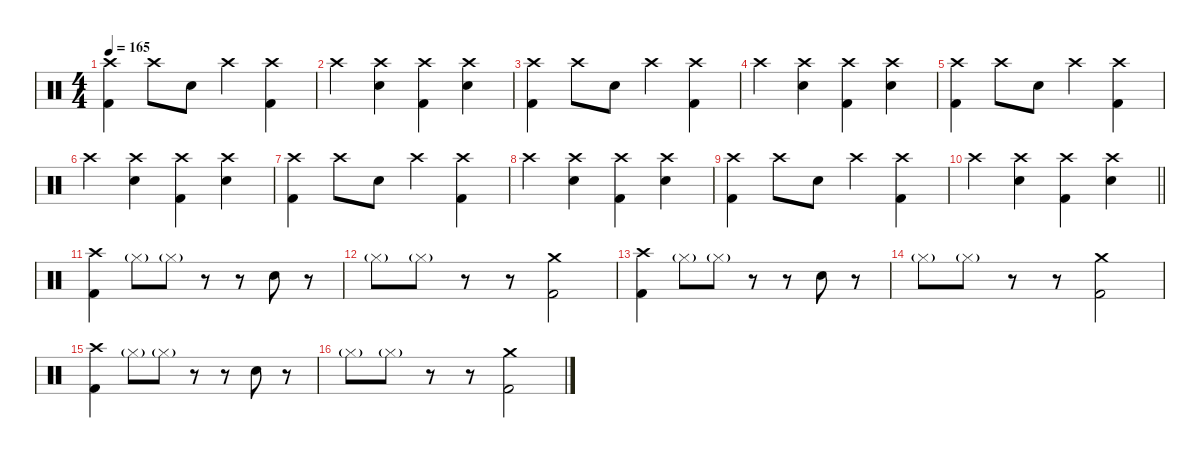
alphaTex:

\defaultSystemsLayout 4
\hideDynamics
\bracketExtendMode nobrackets
\singleTrackTrackNamePolicy hidden
\multiTrackTrackNamePolicy hidden
\firstSystemTrackNameMode fullname
\firstSystemTrackNameOrientation horizontal
\otherSystemsTrackNameOrientation horizontal
\track ("Marty Chapman (Drums)" "drm.") {instrument percussion}
\staff {score}
\articulation defaults
\ts (4 4)
\tempo 165
\clef neutral
\ks c
("Crash high (hit)" "Kick (hit) 2").4{dy f beam Down} "Crash high (hit)".8{beam Down} "Snare (hit) 2".8{beam Down} "Crash high (hit)".4{beam Down} ("Crash high (hit)" "Kick (hit) 2").4{beam Down} |
"Crash high (hit)".4{beam Down} ("Crash high (hit)" "Snare (hit) 2").4{beam Down} ("Crash high (hit)" "Kick (hit) 2").4{beam Down} ("Crash high (hit)" "Snare (hit) 2").4{beam Down} |
("Crash high (hit)" "Kick (hit) 2").4{beam Down} "Crash high (hit)".8{beam Down} "Snare (hit) 2".8{beam Down} "Crash high (hit)".4{beam Down} ("Crash high (hit)" "Kick (hit) 2").4{beam Down} |
"Crash high (hit)".4{beam Down} ("Crash high (hit)" "Snare (hit) 2").4{beam Down} ("Crash high (hit)" "Kick (hit) 2").4{beam Down} ("Crash high (hit)" "Snare (hit) 2").4{beam Down} |
("Crash high (hit)" "Kick (hit) 2").4{beam Down} "Crash high (hit)".8{beam Down} "Snare (hit) 2".8{beam Down} "Crash high (hit)".4{beam Down} ("Crash high (hit)" "Kick (hit) 2").4{beam Down} |
"Crash high (hit)".4{beam Down} ("Crash high (hit)" "Snare (hit) 2").4{beam Down} ("Crash high (hit)" "Kick (hit) 2").4{beam Down} ("Crash high (hit)" "Snare (hit) 2").4{beam Down} |
("Crash high (hit)" "Kick (hit) 2").4{beam Down} "Crash high (hit)".8{beam Down} "Snare (hit) 2".8{beam Down} "Crash high (hit)".4{beam Down} ("Crash high (hit)" "Kick (hit) 2").4{beam Down} |
"Crash high (hit)".4{beam Down} ("Crash high (hit)" "Snare (hit) 2").4{beam Down} ("Crash high (hit)" "Kick (hit) 2").4{beam Down} ("Crash high (hit)" "Snare (hit) 2").4{beam Down} |
("Crash high (hit)" "Kick (hit) 2").4{beam Down} "Crash high (hit)".8{beam Down} "Snare (hit) 2".8{beam Down} "Crash high (hit)".4{beam Down} ("Crash high (hit)" "Kick (hit) 2").4{beam Down} |
\barLineRight lightlight "Crash high (hit)".4{beam Down}
("Crash high (hit)" "Snare (hit) 2").4{beam Down} ("Crash high (hit)" "Kick (hit) 2").4{beam Down} ("Crash high (hit)" "Snare (hit) 2").4{beam Down} |
("Crash high (hit)" "Kick (hit) 2").4{beam Down} "Hi-Hat (closed)"{g}.8{beam Down} "Hi-Hat (closed)"{g}.8{beam Down} r.8{beam Down} r.8{beam Down} "Snare (hit) 2".8{beam Down} r.8{beam Down} |
"Hi-Hat (closed)"{g}.8{beam Down} "Hi-Hat (closed)"{g}.8{beam Down} r.8{beam Down} r.8{beam Down} ("Crash medium (hit)" "Kick (hit) 2").2{beam Down} |
("Crash high (hit)" "Kick (hit) 2").4{beam Down} "Hi-Hat (closed)"{g}.8{beam Down} "Hi-Hat (closed)"{g}.8{beam Down} r.8{beam Down} r.8{beam Down} "Snare (hit) 2".8{beam Down} r.8{beam Down} |
"Hi-Hat (closed)"{g}.8{beam Down} "Hi-Hat (closed)"{g}.8{beam Down} r.8{beam Down} r.8{beam Down} ("Crash medium (hit)" "Kick (hit) 2").2{beam Down} |
("Crash high (hit)" "Kick (hit) 2").4{beam Down} "Hi-Hat (closed)"{g}.8{beam Down} "Hi-Hat (closed)"{g}.8{beam Down} r.8{beam Down} r.8{beam Down} "Snare (hit) 2".8{beam Down} r.8{beam Down} |
"Hi-Hat (closed)"{g}.8{beam Down} "Hi-Hat (closed)"{g}.8{beam Down} r.8{beam Down} r.8{beam Down} ("Crash medium (hit)" "Kick (hit) 2").2{beam Down}
